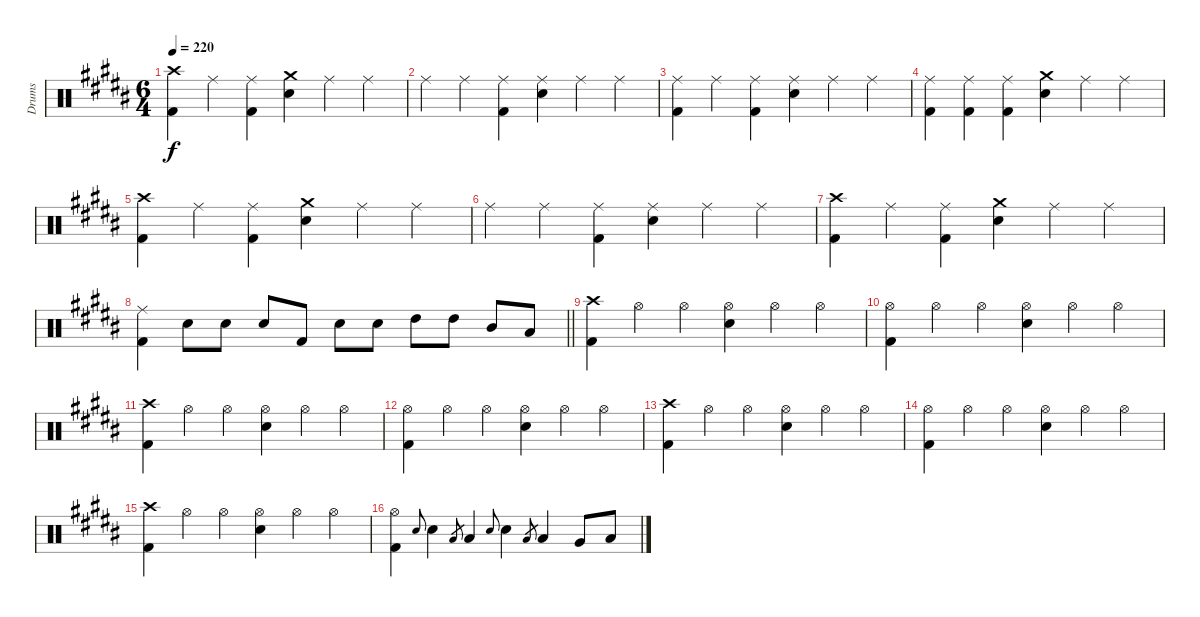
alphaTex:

\track ("Drums" "Drums") {instrument percussion}
\staff {score}
\articulation defaults
\ts (6 4)
\tempo 220
\clef neutral
\ks g#minor
("Crash high (hit)" "Kick (hit) 2").4{dy f} "Ride (middle)".4 ("Ride (middle)" "Kick (hit) 2").4 ("Crash medium (hit)" "Electric Snare (hit)").4 "Ride (middle)".4 "Ride (middle)".4 |
"Ride (middle)".4 "Ride (middle)".4 ("Ride (middle)" "Kick (hit) 2").4 ("Ride (middle)" "Electric Snare (hit)").4 "Ride (middle)".4 "Ride (middle)".4 |
("Ride (middle)" "Kick (hit) 2").4 "Ride (middle)".4 ("Ride (middle)" "Kick (hit) 2").4 ("Ride (middle)" "Electric Snare (hit)").4 "Ride (middle)".4 "Ride (middle)".4 |
("Ride (middle)" "Kick (hit) 2").4 ("Ride (middle)" "Kick (hit) 2").4 ("Ride (middle)" "Kick (hit) 2").4 ("Crash medium (hit)" "Electric Snare (hit)").4 "Ride (middle)".4 "Ride (middle)".4 |
("Crash high (hit)" "Kick (hit) 2").4 "Ride (middle)".4 ("Ride (middle)" "Kick (hit) 2").4 ("Crash medium (hit)" "Electric Snare (hit)").4 "Ride (middle)".4 "Ride (middle)".4 |
"Ride (middle)".4 "Ride (middle)".4 ("Ride (middle)" "Kick (hit) 2").4 ("Ride (middle)" "Electric Snare (hit)").4 "Ride (middle)".4 "Ride (middle)".4 |
("Crash high (hit)" "Kick (hit) 2").4 "Ride (middle)".4 ("Ride (middle)" "Kick (hit) 2").4 ("Crash medium (hit)" "Electric Snare (hit)").4 "Ride (middle)".4 "Ride (middle)".4 |
\barLineRight lightlight
("Ride (middle)" "Kick (hit) 2").4 "Electric Snare (hit)".8 "Electric Snare (hit)".8 "Electric Snare (hit)".8 "Kick (hit) 2".8 "Electric Snare (hit)".8 "Electric Snare (hit)".8 "High Tom (hit)".8 "High Tom (hit)".8 "Mid Tom (hit)".8 "Low Tom (hit)".8 |
("Crash high (hit)" "Kick (hit) 2").4 "Hi-Hat (open)".4 "Hi-Hat (open)".4 ("Hi-Hat (open)" "Electric Snare (hit)").4 "Hi-Hat (open)".4 "Hi-Hat (open)".4 |
("Hi-Hat (open)" "Kick (hit) 2").4 "Hi-Hat (open)".4 "Hi-Hat (open)".4 ("Hi-Hat (open)" "Electric Snare (hit)").4 "Hi-Hat (open)".4 "Hi-Hat (open)".4 |
("Crash high (hit)" "Kick (hit) 2").4 "Hi-Hat (open)".4 "Hi-Hat (open)".4 ("Hi-Hat (open)" "Electric Snare (hit)").4 "Hi-Hat (open)".4 "Hi-Hat (open)".4 |
("Hi-Hat (open)" "Kick (hit) 2").4 "Hi-Hat (open)".4 "Hi-Hat (open)".4 ("Hi-Hat (open)" "Electric Snare (hit)").4 "Hi-Hat (open)".4 "Hi-Hat (open)".4 |
("Crash high (hit)" "Kick (hit) 2").4 "Hi-Hat (open)".4 "Hi-Hat (open)".4 ("Hi-Hat (open)" "Electric Snare (hit)").4 "Hi-Hat (open)".4 "Hi-Hat (open)".4 |
("Hi-Hat (open)" "Kick (hit) 2").4 "Hi-Hat (open)".4 "Hi-Hat (open)".4 ("Hi-Hat (open)" "Electric Snare (hit)").4 "Hi-Hat (open)".4 "Hi-Hat (open)".4 |
("Crash high (hit)" "Kick (hit) 2").4 "Hi-Hat (open)".4 "Hi-Hat (open)".4 ("Hi-Hat (open)" "Electric Snare (hit)").4 "Hi-Hat (open)".4 "Hi-Hat (open)".4 |
("Hi-Hat (open)" "Kick (hit) 2").4 "Electric Snare (hit)".8{gr onbeat} "Electric Snare (hit)".4 "Low Tom (hit)".8{gr} "Low Tom (hit)".4 "Electric Snare (hit)".8{gr onbeat} "Electric Snare (hit)".4 "Low Tom (hit)".8{gr} "Low Tom (hit)".4 "Very Low Tom (hit)".8 "Low Floor Tom (hit)".8
